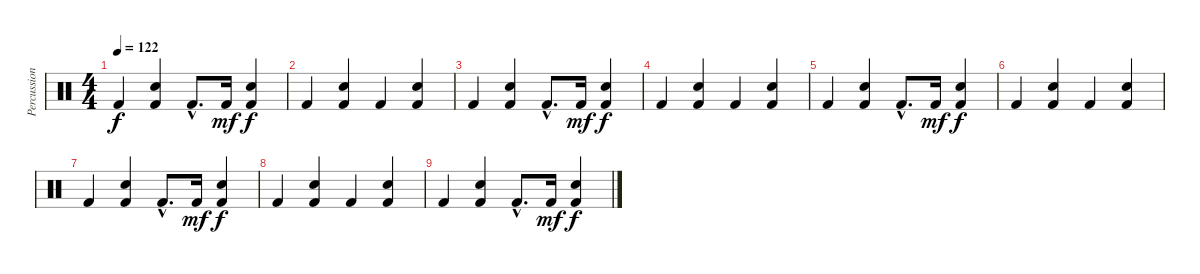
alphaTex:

\track ("Percussion" "Percussion") {instrument percussion}
\staff {score}
\articulation defaults
\ts (4 4)
\tempo 122
\clef neutral
\ks c "Kick (hit) 2".4{dy f}
("Snare (hit) 2" "Kick (hit) 2").4 "Kick (hit) 2"{hac}.8{d} "Kick (hit) 2".16{dy mf} ("Snare (hit) 2" "Kick (hit) 2").4{dy f} |
"Kick (hit) 2".4 ("Snare (hit) 2" "Kick (hit) 2").4 "Kick (hit) 2".4 ("Snare (hit) 2" "Kick (hit) 2").4 |
"Kick (hit) 2".4 ("Snare (hit) 2" "Kick (hit) 2").4 "Kick (hit) 2"{hac}.8{d} "Kick (hit) 2".16{dy mf} ("Snare (hit) 2" "Kick (hit) 2").4{dy f} |
"Kick (hit) 2".4 ("Snare (hit) 2" "Kick (hit) 2").4 "Kick (hit) 2".4 ("Snare (hit) 2" "Kick (hit) 2").4 |
"Kick (hit) 2".4 ("Snare (hit) 2" "Kick (hit) 2").4 "Kick (hit) 2"{hac}.8{d} "Kick (hit) 2".16{dy mf} ("Snare (hit) 2" "Kick (hit) 2").4{dy f} |
"Kick (hit) 2".4 ("Snare (hit) 2" "Kick (hit) 2").4 "Kick (hit) 2".4 ("Snare (hit) 2" "Kick (hit) 2").4 |
"Kick (hit) 2".4 ("Snare (hit) 2" "Kick (hit) 2").4 "Kick (hit) 2"{hac}.8{d} "Kick (hit) 2".16{dy mf} ("Snare (hit) 2" "Kick (hit) 2").4{dy f} |
"Kick (hit) 2".4 ("Snare (hit) 2" "Kick (hit) 2").4 "Kick (hit) 2".4 ("Snare (hit) 2" "Kick (hit) 2").4 |
"Kick (hit) 2".4 ("Snare (hit) 2" "Kick (hit) 2").4 "Kick (hit) 2"{hac}.8{d} "Kick (hit) 2".16{dy mf} ("Snare (hit) 2" "Kick (hit) 2").4{dy f}
